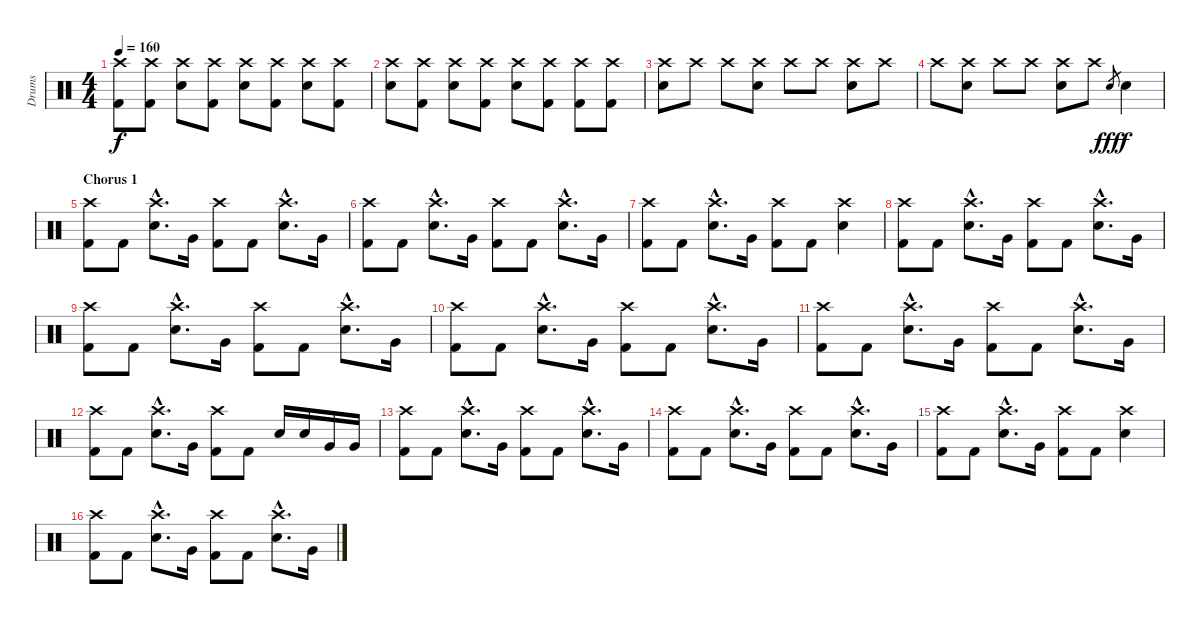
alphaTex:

\track ("Drums" "Drums") {instrument percussion}
\staff {score}
\articulation defaults
\ts (4 4)
\tempo 160
\clef neutral
\ks c
("Crash high (hit)" "Kick (hit) 2").8{dy f} ("Crash high (hit)" "Kick (hit) 2").8 ("Crash high (hit)" "Electric Snare (hit)").8 ("Crash high (hit)" "Kick (hit) 2").8 ("Crash high (hit)" "Electric Snare (hit)").8 ("Crash high (hit)" "Kick (hit) 2").8 ("Crash high (hit)" "Electric Snare (hit)").8 ("Crash high (hit)" "Kick (hit) 2").8 |
("Crash high (hit)" "Electric Snare (hit)").8 ("Crash high (hit)" "Kick (hit) 2").8 ("Crash high (hit)" "Electric Snare (hit)").8 ("Crash high (hit)" "Kick (hit) 2").8 ("Crash high (hit)" "Electric Snare (hit)").8 ("Crash high (hit)" "Kick (hit) 2").8 ("Crash high (hit)" "Kick (hit) 2").8 ("Crash high (hit)" "Kick (hit) 2").8 |
("Crash high (hit)" "Electric Snare (hit)").8 "Crash high (hit)".8 "Crash high (hit)".8 ("Crash high (hit)" "Electric Snare (hit)").8 "Crash high (hit)".8 "Crash high (hit)".8 ("Crash high (hit)" "Electric Snare (hit)").8 "Crash high (hit)".8 |
"Crash high (hit)".8 ("Crash high (hit)" "Electric Snare (hit)").8 "Crash high (hit)".8 "Crash high (hit)".8 ("Crash high (hit)" "Electric Snare (hit)").8 "Crash high (hit)".8 "Electric Snare (hit)".8{gr dy fff} "Electric Snare (hit)".4{dy f} |
\section ("" "Chorus 1")
("Crash high (hit)" "Kick (hit) 2").8 "Kick (hit) 2".8 ("Crash high (hit)"{hac} "Electric Snare (hit)"{hac}).8{d} "Very Low Tom (hit)".16 ("Crash high (hit)" "Kick (hit) 2").8 "Kick (hit) 2".8 ("Crash high (hit)"{hac} "Electric Snare (hit)"{hac}).8{d} "Very Low Tom (hit)".16 |
("Crash high (hit)" "Kick (hit) 2").8 "Kick (hit) 2".8 ("Crash high (hit)"{hac} "Electric Snare (hit)"{hac}).8{d} "Very Low Tom (hit)".16 ("Crash high (hit)" "Kick (hit) 2").8 "Kick (hit) 2".8 ("Crash high (hit)"{hac} "Electric Snare (hit)"{hac}).8{d} "Very Low Tom (hit)".16 |
("Crash high (hit)" "Kick (hit) 2").8 "Kick (hit) 2".8 ("Crash high (hit)"{hac} "Electric Snare (hit)"{hac}).8{d} "Very Low Tom (hit)".16 ("Crash high (hit)" "Kick (hit) 2").8 "Kick (hit) 2".8 ("Crash high (hit)" "Electric Snare (hit)").4 |
("Crash high (hit)" "Kick (hit) 2").8 "Kick (hit) 2".8 ("Crash high (hit)"{hac} "Electric Snare (hit)"{hac}).8{d} "Very Low Tom (hit)".16 ("Crash high (hit)" "Kick (hit) 2").8 "Kick (hit) 2".8 ("Crash high (hit)"{hac} "Electric Snare (hit)"{hac}).8{d} "Very Low Tom (hit)".16 |
("Crash high (hit)" "Kick (hit) 2").8 "Kick (hit) 2".8 ("Crash high (hit)"{hac} "Electric Snare (hit)"{hac}).8{d} "Very Low Tom (hit)".16 ("Crash high (hit)" "Kick (hit) 2").8 "Kick (hit) 2".8 ("Crash high (hit)"{hac} "Electric Snare (hit)"{hac}).8{d} "Very Low Tom (hit)".16 |
("Crash high (hit)" "Kick (hit) 2").8 "Kick (hit) 2".8 ("Crash high (hit)"{hac} "Electric Snare (hit)"{hac}).8{d} "Very Low Tom (hit)".16 ("Crash high (hit)" "Kick (hit) 2").8 "Kick (hit) 2".8 ("Crash high (hit)"{hac} "Electric Snare (hit)"{hac}).8{d} "Very Low Tom (hit)".16 |
("Crash high (hit)" "Kick (hit) 2").8 "Kick (hit) 2".8 ("Crash high (hit)"{hac} "Electric Snare (hit)"{hac}).8{d} "Very Low Tom (hit)".16 ("Crash high (hit)" "Kick (hit) 2").8 "Kick (hit) 2".8 ("Crash high (hit)"{hac} "Electric Snare (hit)"{hac}).8{d} "Very Low Tom (hit)".16 |
("Crash high (hit)" "Kick (hit) 2").8 "Kick (hit) 2".8 ("Crash high (hit)"{hac} "Electric Snare (hit)"{hac}).8{d} "Very Low Tom (hit)".16 ("Crash high (hit)" "Kick (hit) 2").8 "Kick (hit) 2".8 "Electric Snare (hit)".16 "Electric Snare (hit)".16 "Very Low Tom (hit)".16 "Very Low Tom (hit)".16 |
("Crash high (hit)" "Kick (hit) 2").8 "Kick (hit) 2".8 ("Crash high (hit)"{hac} "Electric Snare (hit)"{hac}).8{d} "Very Low Tom (hit)".16 ("Crash high (hit)" "Kick (hit) 2").8 "Kick (hit) 2".8 ("Crash high (hit)"{hac} "Electric Snare (hit)"{hac}).8{d} "Very Low Tom (hit)".16 |
("Crash high (hit)" "Kick (hit) 2").8 "Kick (hit) 2".8 ("Crash high (hit)"{hac} "Electric Snare (hit)"{hac}).8{d} "Very Low Tom (hit)".16 ("Crash high (hit)" "Kick (hit) 2").8 "Kick (hit) 2".8 ("Crash high (hit)"{hac} "Electric Snare (hit)"{hac}).8{d} "Very Low Tom (hit)".16 |
("Crash high (hit)" "Kick (hit) 2").8 "Kick (hit) 2".8 ("Crash high (hit)"{hac} "Electric Snare (hit)"{hac}).8{d} "Very Low Tom (hit)".16 ("Crash high (hit)" "Kick (hit) 2").8 "Kick (hit) 2".8 ("Crash high (hit)" "Electric Snare (hit)").4 |
("Crash high (hit)" "Kick (hit) 2").8 "Kick (hit) 2".8 ("Crash high (hit)"{hac} "Electric Snare (hit)"{hac}).8{d} "Very Low Tom (hit)".16 ("Crash high (hit)" "Kick (hit) 2").8 "Kick (hit) 2".8 ("Crash high (hit)"{hac} "Electric Snare (hit)"{hac}).8{d} "Very Low Tom (hit)".16
